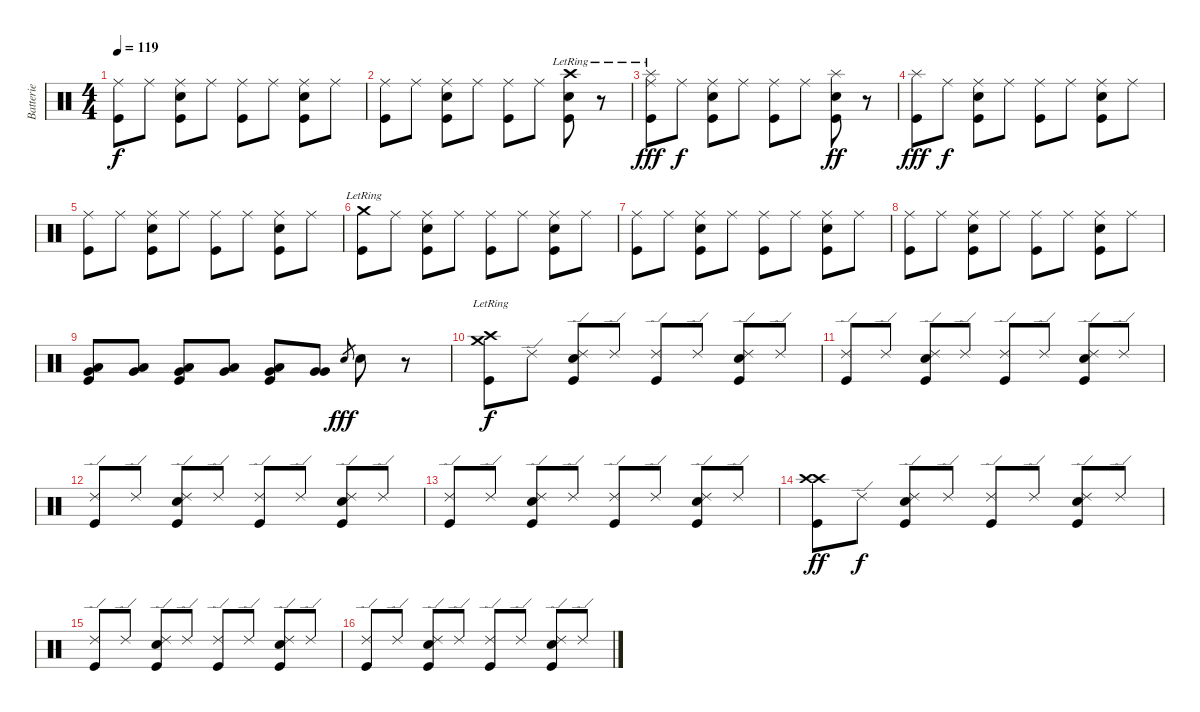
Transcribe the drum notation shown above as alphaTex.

\track ("Batterie" "Batterie") {instrument percussion}
\staff {score}
\articulation defaults
\ts (4 4)
\tempo 119
\clef neutral
\ks c
("Ride (middle)" "Kick (hit)").8{dy f} "Ride (middle)".8 ("Ride (middle)" "Kick (hit)" "Electric Snare (hit)").8 "Ride (middle)".8 ("Ride (middle)" "Kick (hit)").8 "Ride (middle)".8 ("Ride (middle)" "Kick (hit)" "Electric Snare (hit)").8 "Ride (middle)".8 |
("Ride (middle)" "Kick (hit)").8 "Ride (middle)".8 ("Ride (middle)" "Kick (hit)" "Electric Snare (hit)").8 "Ride (middle)".8 ("Ride (middle)" "Kick (hit)").8 "Ride (middle)".8 ("Kick (hit)" "Crash high (hit)"{lr} "Electric Snare (hit)").8 r.8 |
("Ride (middle)" "Kick (hit)" "Splash (hit)"{lr}).8{dy fff} "Ride (middle)".8{dy f} ("Ride (middle)" "Kick (hit)" "Electric Snare (hit)").8 "Ride (middle)".8 ("Ride (middle)" "Kick (hit)").8 "Ride (middle)".8 ("Kick (hit)" "Splash (hit)" "Electric Snare (hit)").8{dy ff} r.8 |
("Kick (hit)" "Splash (hit)").8{dy fff} "Ride (middle)".8{dy f} ("Ride (middle)" "Kick (hit)" "Electric Snare (hit)").8 "Ride (middle)".8 ("Ride (middle)" "Kick (hit)").8 "Ride (middle)".8 ("Ride (middle)" "Kick (hit)" "Electric Snare (hit)").8 "Ride (middle)".8 |
("Ride (middle)" "Kick (hit)").8 "Ride (middle)".8 ("Ride (middle)" "Kick (hit)" "Electric Snare (hit)").8 "Ride (middle)".8 ("Ride (middle)" "Kick (hit)").8 "Ride (middle)".8 ("Ride (middle)" "Kick (hit)" "Electric Snare (hit)").8 "Ride (middle)".8 |
("Kick (hit)" "Crash medium (hit)"{lr}).8 "Ride (middle)".8 ("Ride (middle)" "Kick (hit)" "Electric Snare (hit)").8 "Ride (middle)".8 ("Ride (middle)" "Kick (hit)").8 "Ride (middle)".8 ("Ride (middle)" "Kick (hit)" "Electric Snare (hit)").8 "Ride (middle)".8 |
("Ride (middle)" "Kick (hit)").8 "Ride (middle)".8 ("Ride (middle)" "Kick (hit)" "Electric Snare (hit)").8 "Ride (middle)".8 ("Ride (middle)" "Kick (hit)").8 "Ride (middle)".8 ("Ride (middle)" "Kick (hit)" "Electric Snare (hit)").8 "Ride (middle)".8 |
("Ride (middle)" "Kick (hit)").8 "Ride (middle)".8 ("Ride (middle)" "Kick (hit)" "Electric Snare (hit)").8 "Ride (middle)".8 ("Ride (middle)" "Kick (hit)").8 "Ride (middle)".8 ("Ride (middle)" "Kick (hit)" "Electric Snare (hit)").8 "Ride (middle)".8 |
("Low Tom (hit)" "Kick (hit)" "Very Low Tom (hit)").8 ("Low Tom (hit)" "Very Low Tom (hit)").8 ("Low Tom (hit)" "Kick (hit)" "Very Low Tom (hit)").8 ("Low Tom (hit)" "Very Low Tom (hit)").8 ("Low Tom (hit)" "Kick (hit)" "Very Low Tom (hit)").8 ("Very Low Tom (hit)" "Very Low Tom (hit)").8 "Electric Snare (hit)".8{gr dy fff} "Electric Snare (hit)".8 r.8 |
("Kick (hit)" "Crash medium (hit)"{lr} "Crash high (hit)"{lr}).8{dy f} "Ride (edge) 2".8 ("Ride (edge) 2" "Kick (hit)" "Electric Snare (hit)").8 "Ride (edge) 2".8 ("Ride (edge) 2" "Kick (hit)").8 "Ride (edge) 2".8 ("Ride (edge) 2" "Kick (hit)" "Electric Snare (hit)").8 "Ride (edge) 2".8 |
("Ride (edge) 2" "Kick (hit)").8 "Ride (edge) 2".8 ("Ride (edge) 2" "Kick (hit)" "Electric Snare (hit)").8 "Ride (edge) 2".8 ("Ride (edge) 2" "Kick (hit)").8 "Ride (edge) 2".8 ("Ride (edge) 2" "Kick (hit)" "Electric Snare (hit)").8 "Ride (edge) 2".8 |
("Ride (edge) 2" "Kick (hit)").8 "Ride (edge) 2".8 ("Ride (edge) 2" "Kick (hit)" "Electric Snare (hit)").8 "Ride (edge) 2".8 ("Ride (edge) 2" "Kick (hit)").8 "Ride (edge) 2".8 ("Ride (edge) 2" "Kick (hit)" "Electric Snare (hit)").8 "Ride (edge) 2".8 |
("Ride (edge) 2" "Kick (hit)").8 "Ride (edge) 2".8 ("Ride (edge) 2" "Kick (hit)" "Electric Snare (hit)").8 "Ride (edge) 2".8 ("Ride (edge) 2" "Kick (hit)").8 "Ride (edge) 2".8 ("Ride (edge) 2" "Kick (hit)" "Electric Snare (hit)").8 "Ride (edge) 2".8 |
("Kick (hit)" "Crash high (hit)" "Crash high (hit)").8{dy ff} "Ride (edge) 2".8{dy f} ("Ride (edge) 2" "Kick (hit)" "Electric Snare (hit)").8 "Ride (edge) 2".8 ("Ride (edge) 2" "Kick (hit)").8 "Ride (edge) 2".8 ("Ride (edge) 2" "Kick (hit)" "Electric Snare (hit)").8 "Ride (edge) 2".8 |
("Ride (edge) 2" "Kick (hit)").8 "Ride (edge) 2".8 ("Ride (edge) 2" "Kick (hit)" "Electric Snare (hit)").8 "Ride (edge) 2".8 ("Ride (edge) 2" "Kick (hit)").8 "Ride (edge) 2".8 ("Ride (edge) 2" "Kick (hit)" "Electric Snare (hit)").8 "Ride (edge) 2".8 |
("Ride (edge) 2" "Kick (hit)").8 "Ride (edge) 2".8 ("Ride (edge) 2" "Kick (hit)" "Electric Snare (hit)").8 "Ride (edge) 2".8 ("Ride (edge) 2" "Kick (hit)").8 "Ride (edge) 2".8 ("Ride (edge) 2" "Kick (hit)" "Electric Snare (hit)").8 "Ride (edge) 2".8
